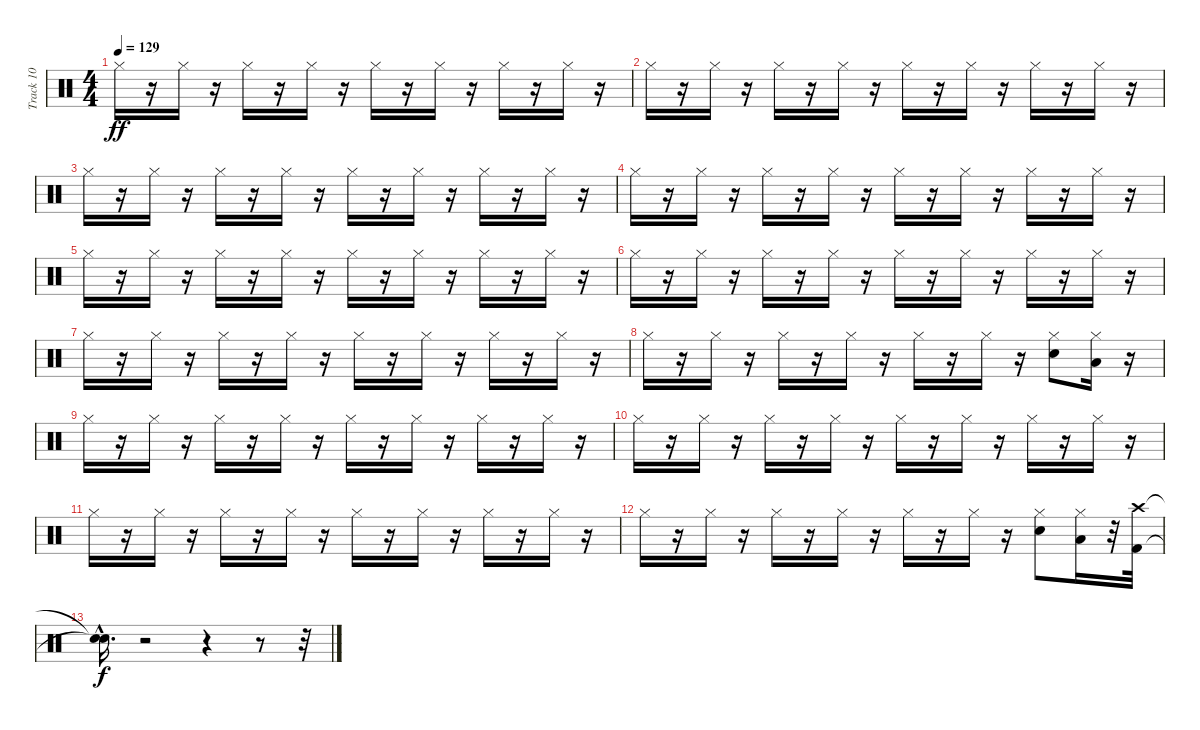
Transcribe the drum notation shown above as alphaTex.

\track ("Track 10" "Track 10") {instrument percussion}
\staff {score}
\articulation defaults
\ts (4 4)
\tempo 129
\clef neutral
\ks c "Hi-Hat (closed)".16{dy ff}
r.16 "Hi-Hat (closed)".16 r.16 "Hi-Hat (closed)".16 r.16 "Hi-Hat (closed)".16 r.16 "Hi-Hat (closed)".16 r.16 "Hi-Hat (closed)".16 r.16 "Hi-Hat (closed)".16 r.16 "Hi-Hat (closed)".16 r.16 |
"Hi-Hat (closed)".16 r.16 "Hi-Hat (closed)".16 r.16 "Hi-Hat (closed)".16 r.16 "Hi-Hat (closed)".16 r.16 "Hi-Hat (closed)".16 r.16 "Hi-Hat (closed)".16 r.16 "Hi-Hat (closed)".16 r.16 "Hi-Hat (closed)".16 r.16 |
"Hi-Hat (closed)".16 r.16 "Hi-Hat (closed)".16 r.16 "Hi-Hat (closed)".16 r.16 "Hi-Hat (closed)".16 r.16 "Hi-Hat (closed)".16 r.16 "Hi-Hat (closed)".16 r.16 "Hi-Hat (closed)".16 r.16 "Hi-Hat (closed)".16 r.16 |
"Hi-Hat (closed)".16 r.16 "Hi-Hat (closed)".16 r.16 "Hi-Hat (closed)".16 r.16 "Hi-Hat (closed)".16 r.16 "Hi-Hat (closed)".16 r.16 "Hi-Hat (closed)".16 r.16 "Hi-Hat (closed)".16 r.16 "Hi-Hat (closed)".16 r.16 |
"Hi-Hat (closed)".16 r.16 "Hi-Hat (closed)".16 r.16 "Hi-Hat (closed)".16 r.16 "Hi-Hat (closed)".16 r.16 "Hi-Hat (closed)".16 r.16 "Hi-Hat (closed)".16 r.16 "Hi-Hat (closed)".16 r.16 "Hi-Hat (closed)".16 r.16 |
"Hi-Hat (closed)".16 r.16 "Hi-Hat (closed)".16 r.16 "Hi-Hat (closed)".16 r.16 "Hi-Hat (closed)".16 r.16 "Hi-Hat (closed)".16 r.16 "Hi-Hat (closed)".16 r.16 "Hi-Hat (closed)".16 r.16 "Hi-Hat (closed)".16 r.16 |
"Hi-Hat (closed)".16 r.16 "Hi-Hat (closed)".16 r.16 "Hi-Hat (closed)".16 r.16 "Hi-Hat (closed)".16 r.16 "Hi-Hat (closed)".16 r.16 "Hi-Hat (closed)".16 r.16 "Hi-Hat (closed)".16 r.16 "Hi-Hat (closed)".16 r.16 |
"Hi-Hat (closed)".16 r.16 "Hi-Hat (closed)".16 r.16 "Hi-Hat (closed)".16 r.16 "Hi-Hat (closed)".16 r.16 "Hi-Hat (closed)".16 r.16 "Hi-Hat (closed)".16 r.16 ("Hi-Hat (closed)" "Snare (hit) 2").8 ("Hi-Hat (closed)" "Low Floor Tom (hit)").16 r.16 |
"Hi-Hat (closed)".16 r.16 "Hi-Hat (closed)".16 r.16 "Hi-Hat (closed)".16 r.16 "Hi-Hat (closed)".16 r.16 "Hi-Hat (closed)".16 r.16 "Hi-Hat (closed)".16 r.16 "Hi-Hat (closed)".16 r.16 "Hi-Hat (closed)".16 r.16 |
"Hi-Hat (closed)".16 r.16 "Hi-Hat (closed)".16 r.16 "Hi-Hat (closed)".16 r.16 "Hi-Hat (closed)".16 r.16 "Hi-Hat (closed)".16 r.16 "Hi-Hat (closed)".16 r.16 "Hi-Hat (closed)".16 r.16 "Hi-Hat (closed)".16 r.16 |
"Hi-Hat (closed)".16 r.16 "Hi-Hat (closed)".16 r.16 "Hi-Hat (closed)".16 r.16 "Hi-Hat (closed)".16 r.16 "Hi-Hat (closed)".16 r.16 "Hi-Hat (closed)".16 r.16 "Hi-Hat (closed)".16 r.16 "Hi-Hat (closed)".16 r.16 |
"Hi-Hat (closed)".16 r.16 "Hi-Hat (closed)".16 r.16 "Hi-Hat (closed)".16 r.16 "Hi-Hat (closed)".16 r.16 "Hi-Hat (closed)".16 r.16 "Hi-Hat (closed)".16 r.16 ("Hi-Hat (closed)" "Snare (hit) 2").8 ("Hi-Hat (closed)" "Low Floor Tom (hit)").16 r.32 ("Kick (hit) 2" "Crash high (hit)").32 |
("Snare (hit)"{hac t} "Snare (hit)"{hac t}).16{d dy f} r.2 r.4 r.8 r.32
